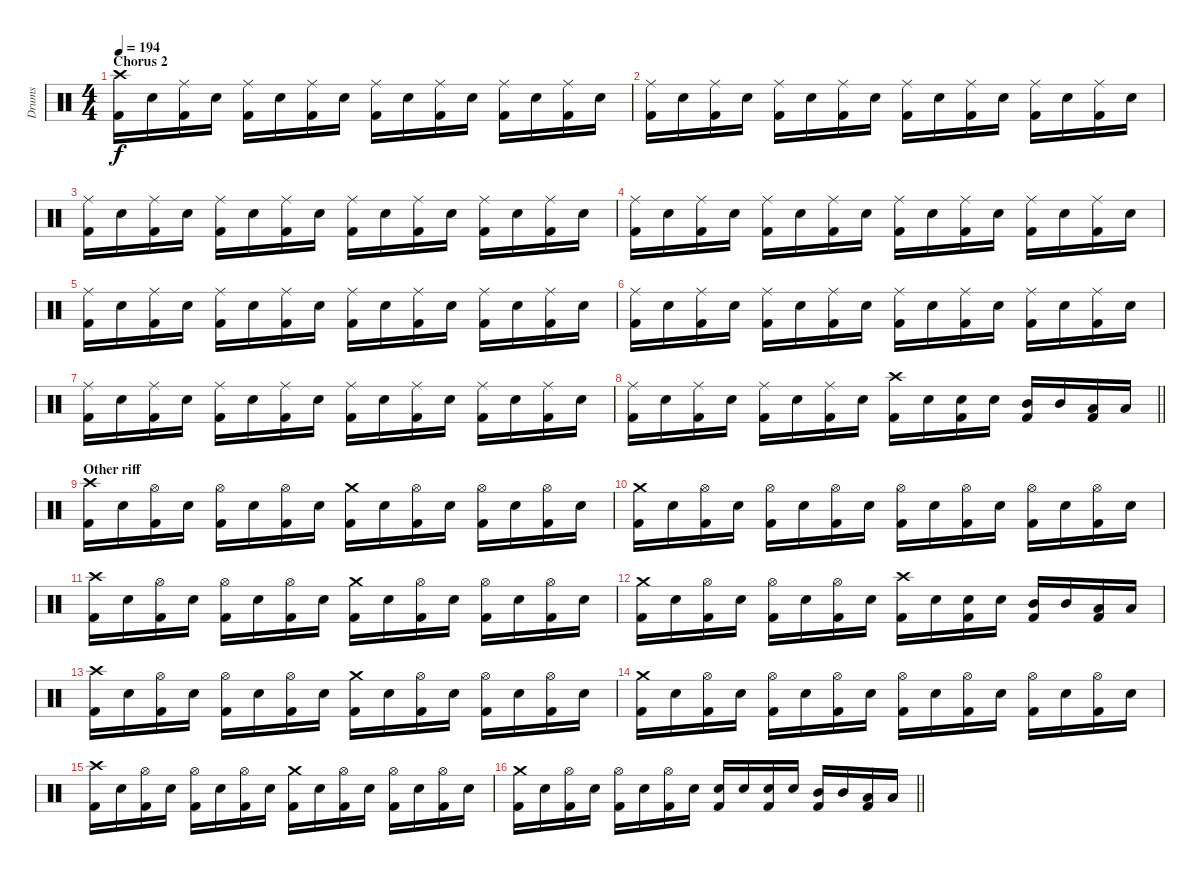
\track ("Drums" "Drums") {instrument percussion}
\staff {score}
\articulation defaults
\ts (4 4)
\section ("" "Chorus 2")
\tempo 194
\clef neutral
\ks c
("Crash high (hit)" "Kick (hit) 2").16{dy f} "Electric Snare (hit)".16 ("Ride (middle)" "Kick (hit) 2").16 "Electric Snare (hit)".16 ("Ride (middle)" "Kick (hit) 2").16 "Electric Snare (hit)".16 ("Ride (middle)" "Kick (hit) 2").16 "Electric Snare (hit)".16 ("Ride (middle)" "Kick (hit) 2").16 "Electric Snare (hit)".16 ("Ride (middle)" "Kick (hit) 2").16 "Electric Snare (hit)".16 ("Ride (middle)" "Kick (hit) 2").16 "Electric Snare (hit)".16 ("Ride (middle)" "Kick (hit) 2").16 "Electric Snare (hit)".16 |
("Ride (middle)" "Kick (hit) 2").16 "Electric Snare (hit)".16 ("Ride (middle)" "Kick (hit) 2").16 "Electric Snare (hit)".16 ("Ride (middle)" "Kick (hit) 2").16 "Electric Snare (hit)".16 ("Ride (middle)" "Kick (hit) 2").16 "Electric Snare (hit)".16 ("Ride (middle)" "Kick (hit) 2").16 "Electric Snare (hit)".16 ("Ride (middle)" "Kick (hit) 2").16 "Electric Snare (hit)".16 ("Ride (middle)" "Kick (hit) 2").16 "Electric Snare (hit)".16 ("Ride (middle)" "Kick (hit) 2").16 "Electric Snare (hit)".16 |
("Ride (middle)" "Kick (hit) 2").16 "Electric Snare (hit)".16 ("Ride (middle)" "Kick (hit) 2").16 "Electric Snare (hit)".16 ("Ride (middle)" "Kick (hit) 2").16 "Electric Snare (hit)".16 ("Ride (middle)" "Kick (hit) 2").16 "Electric Snare (hit)".16 ("Ride (middle)" "Kick (hit) 2").16 "Electric Snare (hit)".16 ("Ride (middle)" "Kick (hit) 2").16 "Electric Snare (hit)".16 ("Ride (middle)" "Kick (hit) 2").16 "Electric Snare (hit)".16 ("Ride (middle)" "Kick (hit) 2").16 "Electric Snare (hit)".16 |
("Ride (middle)" "Kick (hit) 2").16 "Electric Snare (hit)".16 ("Ride (middle)" "Kick (hit) 2").16 "Electric Snare (hit)".16 ("Ride (middle)" "Kick (hit) 2").16 "Electric Snare (hit)".16 ("Ride (middle)" "Kick (hit) 2").16 "Electric Snare (hit)".16 ("Ride (middle)" "Kick (hit) 2").16 "Electric Snare (hit)".16 ("Ride (middle)" "Kick (hit) 2").16 "Electric Snare (hit)".16 ("Ride (middle)" "Kick (hit) 2").16 "Electric Snare (hit)".16 ("Ride (middle)" "Kick (hit) 2").16 "Electric Snare (hit)".16 |
("Ride (middle)" "Kick (hit) 2").16 "Electric Snare (hit)".16 ("Ride (middle)" "Kick (hit) 2").16 "Electric Snare (hit)".16 ("Ride (middle)" "Kick (hit) 2").16 "Electric Snare (hit)".16 ("Ride (middle)" "Kick (hit) 2").16 "Electric Snare (hit)".16 ("Ride (middle)" "Kick (hit) 2").16 "Electric Snare (hit)".16 ("Ride (middle)" "Kick (hit) 2").16 "Electric Snare (hit)".16 ("Ride (middle)" "Kick (hit) 2").16 "Electric Snare (hit)".16 ("Ride (middle)" "Kick (hit) 2").16 "Electric Snare (hit)".16 |
("Ride (middle)" "Kick (hit) 2").16 "Electric Snare (hit)".16 ("Ride (middle)" "Kick (hit) 2").16 "Electric Snare (hit)".16 ("Ride (middle)" "Kick (hit) 2").16 "Electric Snare (hit)".16 ("Ride (middle)" "Kick (hit) 2").16 "Electric Snare (hit)".16 ("Ride (middle)" "Kick (hit) 2").16 "Electric Snare (hit)".16 ("Ride (middle)" "Kick (hit) 2").16 "Electric Snare (hit)".16 ("Ride (middle)" "Kick (hit) 2").16 "Electric Snare (hit)".16 ("Ride (middle)" "Kick (hit) 2").16 "Electric Snare (hit)".16 |
("Ride (middle)" "Kick (hit) 2").16 "Electric Snare (hit)".16 ("Ride (middle)" "Kick (hit) 2").16 "Electric Snare (hit)".16 ("Ride (middle)" "Kick (hit) 2").16 "Electric Snare (hit)".16 ("Ride (middle)" "Kick (hit) 2").16 "Electric Snare (hit)".16 ("Ride (middle)" "Kick (hit) 2").16 "Electric Snare (hit)".16 ("Ride (middle)" "Kick (hit) 2").16 "Electric Snare (hit)".16 ("Ride (middle)" "Kick (hit) 2").16 "Electric Snare (hit)".16 ("Ride (middle)" "Kick (hit) 2").16 "Electric Snare (hit)".16 |
\barLineRight lightlight
("Ride (middle)" "Kick (hit) 2").16 "Electric Snare (hit)".16 ("Ride (middle)" "Kick (hit) 2").16 "Electric Snare (hit)".16 ("Ride (middle)" "Kick (hit) 2").16 "Electric Snare (hit)".16 ("Ride (middle)" "Kick (hit) 2").16 "Electric Snare (hit)".16 ("Crash high (hit)" "Kick (hit) 2").16 "Electric Snare (hit)".16 ("Electric Snare (hit)" "Kick (hit) 2").16 "Electric Snare (hit)".16 ("Mid Tom (hit)" "Kick (hit) 2").16 "Mid Tom (hit)".16 ("Low Tom (hit)" "Kick (hit) 2").16 "Low Tom (hit)".16 |
\section ("" "Other riff")
("Crash high (hit)" "Kick (hit) 2").16 "Electric Snare (hit)".16 ("Hi-Hat (open)" "Kick (hit) 2").16 "Electric Snare (hit)".16 ("Hi-Hat (open)" "Kick (hit) 2").16 "Electric Snare (hit)".16 ("Hi-Hat (open)" "Kick (hit) 2").16 "Electric Snare (hit)".16 ("Crash medium (hit)" "Kick (hit) 2").16 "Electric Snare (hit)".16 ("Hi-Hat (open)" "Kick (hit) 2").16 "Electric Snare (hit)".16 ("Hi-Hat (open)" "Kick (hit) 2").16 "Electric Snare (hit)".16 ("Hi-Hat (open)" "Kick (hit) 2").16 "Electric Snare (hit)".16 |
("Crash medium (hit)" "Kick (hit) 2").16 "Electric Snare (hit)".16 ("Hi-Hat (open)" "Kick (hit) 2").16 "Electric Snare (hit)".16 ("Hi-Hat (open)" "Kick (hit) 2").16 "Electric Snare (hit)".16 ("Hi-Hat (open)" "Kick (hit) 2").16 "Electric Snare (hit)".16 ("Hi-Hat (open)" "Kick (hit) 2").16 "Electric Snare (hit)".16 ("Hi-Hat (open)" "Kick (hit) 2").16 "Electric Snare (hit)".16 ("Hi-Hat (open)" "Kick (hit) 2").16 "Electric Snare (hit)".16 ("Hi-Hat (open)" "Kick (hit) 2").16 "Electric Snare (hit)".16 |
("Crash high (hit)" "Kick (hit) 2").16 "Electric Snare (hit)".16 ("Hi-Hat (open)" "Kick (hit) 2").16 "Electric Snare (hit)".16 ("Hi-Hat (open)" "Kick (hit) 2").16 "Electric Snare (hit)".16 ("Hi-Hat (open)" "Kick (hit) 2").16 "Electric Snare (hit)".16 ("Crash medium (hit)" "Kick (hit) 2").16 "Electric Snare (hit)".16 ("Hi-Hat (open)" "Kick (hit) 2").16 "Electric Snare (hit)".16 ("Hi-Hat (open)" "Kick (hit) 2").16 "Electric Snare (hit)".16 ("Hi-Hat (open)" "Kick (hit) 2").16 "Electric Snare (hit)".16 |
("Crash medium (hit)" "Kick (hit) 2").16 "Electric Snare (hit)".16 ("Hi-Hat (open)" "Kick (hit) 2").16 "Electric Snare (hit)".16 ("Hi-Hat (open)" "Kick (hit) 2").16 "Electric Snare (hit)".16 ("Hi-Hat (open)" "Kick (hit) 2").16 "Electric Snare (hit)".16 ("Crash high (hit)" "Kick (hit) 2").16 "Electric Snare (hit)".16 ("Electric Snare (hit)" "Kick (hit) 2").16 "Electric Snare (hit)".16 ("Mid Tom (hit)" "Kick (hit) 2").16 "Mid Tom (hit)".16 ("Low Tom (hit)" "Kick (hit) 2").16 "Low Tom (hit)".16 |
("Crash high (hit)" "Kick (hit) 2").16 "Electric Snare (hit)".16 ("Hi-Hat (open)" "Kick (hit) 2").16 "Electric Snare (hit)".16 ("Hi-Hat (open)" "Kick (hit) 2").16 "Electric Snare (hit)".16 ("Hi-Hat (open)" "Kick (hit) 2").16 "Electric Snare (hit)".16 ("Crash medium (hit)" "Kick (hit) 2").16 "Electric Snare (hit)".16 ("Hi-Hat (open)" "Kick (hit) 2").16 "Electric Snare (hit)".16 ("Hi-Hat (open)" "Kick (hit) 2").16 "Electric Snare (hit)".16 ("Hi-Hat (open)" "Kick (hit) 2").16 "Electric Snare (hit)".16 |
("Crash medium (hit)" "Kick (hit) 2").16 "Electric Snare (hit)".16 ("Hi-Hat (open)" "Kick (hit) 2").16 "Electric Snare (hit)".16 ("Hi-Hat (open)" "Kick (hit) 2").16 "Electric Snare (hit)".16 ("Hi-Hat (open)" "Kick (hit) 2").16 "Electric Snare (hit)".16 ("Hi-Hat (open)" "Kick (hit) 2").16 "Electric Snare (hit)".16 ("Hi-Hat (open)" "Kick (hit) 2").16 "Electric Snare (hit)".16 ("Hi-Hat (open)" "Kick (hit) 2").16 "Electric Snare (hit)".16 ("Hi-Hat (open)" "Kick (hit) 2").16 "Electric Snare (hit)".16 |
("Crash high (hit)" "Kick (hit) 2").16 "Electric Snare (hit)".16 ("Hi-Hat (open)" "Kick (hit) 2").16 "Electric Snare (hit)".16 ("Hi-Hat (open)" "Kick (hit) 2").16 "Electric Snare (hit)".16 ("Hi-Hat (open)" "Kick (hit) 2").16 "Electric Snare (hit)".16 ("Crash medium (hit)" "Kick (hit) 2").16 "Electric Snare (hit)".16 ("Hi-Hat (open)" "Kick (hit) 2").16 "Electric Snare (hit)".16 ("Hi-Hat (open)" "Kick (hit) 2").16 "Electric Snare (hit)".16 ("Hi-Hat (open)" "Kick (hit) 2").16 "Electric Snare (hit)".16 |
\barLineRight lightlight
("Crash medium (hit)" "Kick (hit) 2").16 "Electric Snare (hit)".16 ("Hi-Hat (open)" "Kick (hit) 2").16 "Electric Snare (hit)".16 ("Hi-Hat (open)" "Kick (hit) 2").16 "Electric Snare (hit)".16 ("Hi-Hat (open)" "Kick (hit) 2").16 "Electric Snare (hit)".16 ("Electric Snare (hit)" "Kick (hit) 2").16 "Electric Snare (hit)".16 ("Electric Snare (hit)" "Kick (hit) 2").16 "Electric Snare (hit)".16 ("Mid Tom (hit)" "Kick (hit) 2").16 "Mid Tom (hit)".16 ("Low Tom (hit)" "Kick (hit) 2").16 "Low Tom (hit)".16
